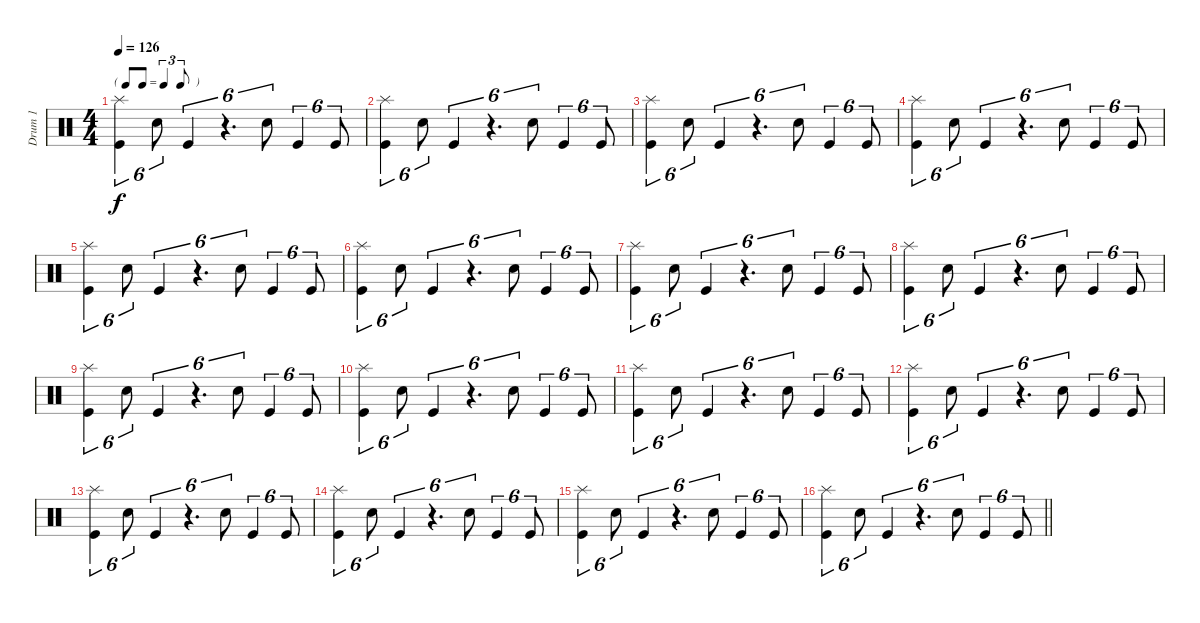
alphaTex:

\track ("Drum 1" "Drum 1") {instrument percussion}
\staff {score}
\articulation defaults
\ts (4 4)
\tf triplet8th
\tempo 126
\clef neutral
\ks c
("Kick (hit)" "Splash (hit)").4{tu (6 4) dy f} "Snare (hit) 2".8{tu (6 4)} "Kick (hit)".4{tu (6 4)} r.4{d tu (6 4)} "Snare (hit) 2".8{tu (6 4)} "Kick (hit)".4{tu (6 4)} "Kick (hit)".8{tu (6 4)} |
("Kick (hit)" "Splash (hit)").4{tu (6 4)} "Snare (hit) 2".8{tu (6 4)} "Kick (hit)".4{tu (6 4)} r.4{d tu (6 4)} "Snare (hit) 2".8{tu (6 4)} "Kick (hit)".4{tu (6 4)} "Kick (hit)".8{tu (6 4)} |
("Kick (hit)" "Splash (hit)").4{tu (6 4)} "Snare (hit) 2".8{tu (6 4)} "Kick (hit)".4{tu (6 4)} r.4{d tu (6 4)} "Snare (hit) 2".8{tu (6 4)} "Kick (hit)".4{tu (6 4)} "Kick (hit)".8{tu (6 4)} |
("Kick (hit)" "Splash (hit)").4{tu (6 4)} "Snare (hit) 2".8{tu (6 4)} "Kick (hit)".4{tu (6 4)} r.4{d tu (6 4)} "Snare (hit) 2".8{tu (6 4)} "Kick (hit)".4{tu (6 4)} "Kick (hit)".8{tu (6 4)} |
("Kick (hit)" "Splash (hit)").4{tu (6 4)} "Snare (hit) 2".8{tu (6 4)} "Kick (hit)".4{tu (6 4)} r.4{d tu (6 4)} "Snare (hit) 2".8{tu (6 4)} "Kick (hit)".4{tu (6 4)} "Kick (hit)".8{tu (6 4)} |
("Kick (hit)" "Splash (hit)").4{tu (6 4)} "Snare (hit) 2".8{tu (6 4)} "Kick (hit)".4{tu (6 4)} r.4{d tu (6 4)} "Snare (hit) 2".8{tu (6 4)} "Kick (hit)".4{tu (6 4)} "Kick (hit)".8{tu (6 4)} |
("Kick (hit)" "Splash (hit)").4{tu (6 4)} "Snare (hit) 2".8{tu (6 4)} "Kick (hit)".4{tu (6 4)} r.4{d tu (6 4)} "Snare (hit) 2".8{tu (6 4)} "Kick (hit)".4{tu (6 4)} "Kick (hit)".8{tu (6 4)} |
("Kick (hit)" "Splash (hit)").4{tu (6 4)} "Snare (hit) 2".8{tu (6 4)} "Kick (hit)".4{tu (6 4)} r.4{d tu (6 4)} "Snare (hit) 2".8{tu (6 4)} "Kick (hit)".4{tu (6 4)} "Kick (hit)".8{tu (6 4)} |
("Kick (hit)" "Splash (hit)").4{tu (6 4)} "Snare (hit) 2".8{tu (6 4)} "Kick (hit)".4{tu (6 4)} r.4{d tu (6 4)} "Snare (hit) 2".8{tu (6 4)} "Kick (hit)".4{tu (6 4)} "Kick (hit)".8{tu (6 4)} |
("Kick (hit)" "Splash (hit)").4{tu (6 4)} "Snare (hit) 2".8{tu (6 4)} "Kick (hit)".4{tu (6 4)} r.4{d tu (6 4)} "Snare (hit) 2".8{tu (6 4)} "Kick (hit)".4{tu (6 4)} "Kick (hit)".8{tu (6 4)} |
("Kick (hit)" "Splash (hit)").4{tu (6 4)} "Snare (hit) 2".8{tu (6 4)} "Kick (hit)".4{tu (6 4)} r.4{d tu (6 4)} "Snare (hit) 2".8{tu (6 4)} "Kick (hit)".4{tu (6 4)} "Kick (hit)".8{tu (6 4)} |
("Kick (hit)" "Splash (hit)").4{tu (6 4)} "Snare (hit) 2".8{tu (6 4)} "Kick (hit)".4{tu (6 4)} r.4{d tu (6 4)} "Snare (hit) 2".8{tu (6 4)} "Kick (hit)".4{tu (6 4)} "Kick (hit)".8{tu (6 4)} |
("Kick (hit)" "Splash (hit)").4{tu (6 4)} "Snare (hit) 2".8{tu (6 4)} "Kick (hit)".4{tu (6 4)} r.4{d tu (6 4)} "Snare (hit) 2".8{tu (6 4)} "Kick (hit)".4{tu (6 4)} "Kick (hit)".8{tu (6 4)} |
("Kick (hit)" "Splash (hit)").4{tu (6 4)} "Snare (hit) 2".8{tu (6 4)} "Kick (hit)".4{tu (6 4)} r.4{d tu (6 4)} "Snare (hit) 2".8{tu (6 4)} "Kick (hit)".4{tu (6 4)} "Kick (hit)".8{tu (6 4)} |
("Kick (hit)" "Splash (hit)").4{tu (6 4)} "Snare (hit) 2".8{tu (6 4)} "Kick (hit)".4{tu (6 4)} r.4{d tu (6 4)} "Snare (hit) 2".8{tu (6 4)} "Kick (hit)".4{tu (6 4)} "Kick (hit)".8{tu (6 4)} |
\barLineRight lightlight
("Kick (hit)" "Splash (hit)").4{tu (6 4)} "Snare (hit) 2".8{tu (6 4)} "Kick (hit)".4{tu (6 4)} r.4{d tu (6 4)} "Snare (hit) 2".8{tu (6 4)} "Kick (hit)".4{tu (6 4)} "Kick (hit)".8{tu (6 4)}
